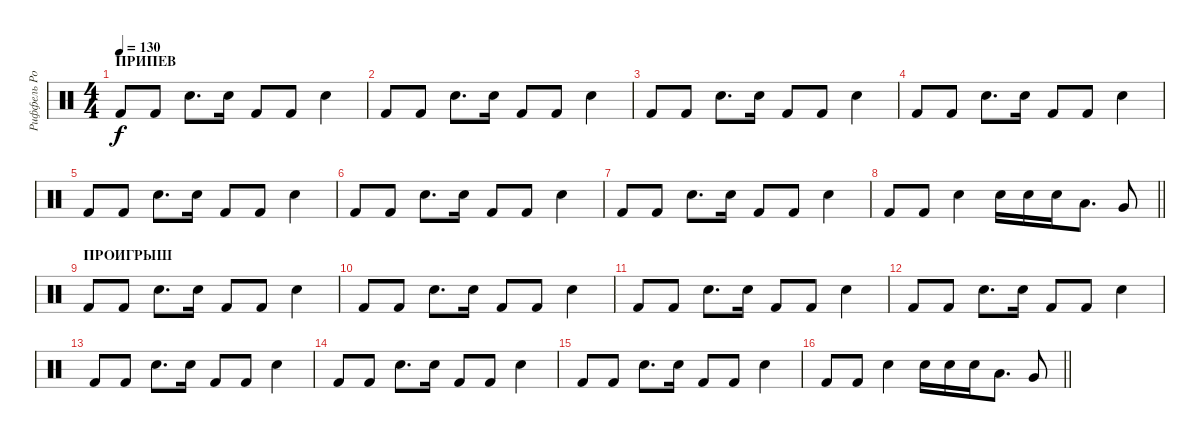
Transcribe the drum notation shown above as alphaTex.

\track ("Риффель Роман(Главные)" "Риффель Ро") {instrument percussion}
\staff {score}
\articulation defaults
\ts (4 4)
\section ("" "ПРИПЕВ")
\tempo 130
\clef neutral
\ks c "Kick (hit) 2".8{dy f} "Kick (hit) 2".8 "Electric Snare (hit)".8{d} "Electric Snare (hit)".16 "Kick (hit) 2".8 "Kick (hit) 2".8 "Electric Snare (hit)".4
|
"Kick (hit) 2".8 "Kick (hit) 2".8 "Electric Snare (hit)".8{d} "Electric Snare (hit)".16 "Kick (hit) 2".8 "Kick (hit) 2".8 "Electric Snare (hit)".4 |
"Kick (hit) 2".8 "Kick (hit) 2".8 "Electric Snare (hit)".8{d} "Electric Snare (hit)".16 "Kick (hit) 2".8 "Kick (hit) 2".8 "Electric Snare (hit)".4 |
"Kick (hit) 2".8 "Kick (hit) 2".8 "Electric Snare (hit)".8{d} "Electric Snare (hit)".16 "Kick (hit) 2".8 "Kick (hit) 2".8 "Electric Snare (hit)".4 |
"Kick (hit) 2".8 "Kick (hit) 2".8 "Electric Snare (hit)".8{d} "Electric Snare (hit)".16 "Kick (hit) 2".8 "Kick (hit) 2".8 "Electric Snare (hit)".4 |
"Kick (hit) 2".8 "Kick (hit) 2".8 "Electric Snare (hit)".8{d} "Electric Snare (hit)".16 "Kick (hit) 2".8 "Kick (hit) 2".8 "Electric Snare (hit)".4 |
"Kick (hit) 2".8 "Kick (hit) 2".8 "Electric Snare (hit)".8{d} "Electric Snare (hit)".16 "Kick (hit) 2".8 "Kick (hit) 2".8 "Electric Snare (hit)".4 |
\barLineRight lightlight "Kick (hit) 2".8 "Kick (hit) 2".8 "Electric Snare (hit)".4 "Electric Snare (hit)".16 "Electric Snare (hit)".16 "Electric Snare (hit)".16 "Low Tom (hit)".8{d} "Very Low Tom (hit)".8
|
\section ("" "ПРОИГРЫШ")
"Kick (hit) 2".8 "Kick (hit) 2".8 "Electric Snare (hit)".8{d} "Electric Snare (hit)".16 "Kick (hit) 2".8 "Kick (hit) 2".8 "Electric Snare (hit)".4 |
"Kick (hit) 2".8 "Kick (hit) 2".8 "Electric Snare (hit)".8{d} "Electric Snare (hit)".16 "Kick (hit) 2".8 "Kick (hit) 2".8 "Electric Snare (hit)".4 |
"Kick (hit) 2".8 "Kick (hit) 2".8 "Electric Snare (hit)".8{d} "Electric Snare (hit)".16 "Kick (hit) 2".8 "Kick (hit) 2".8 "Electric Snare (hit)".4 |
"Kick (hit) 2".8 "Kick (hit) 2".8 "Electric Snare (hit)".8{d} "Electric Snare (hit)".16 "Kick (hit) 2".8 "Kick (hit) 2".8 "Electric Snare (hit)".4 |
"Kick (hit) 2".8 "Kick (hit) 2".8 "Electric Snare (hit)".8{d} "Electric Snare (hit)".16 "Kick (hit) 2".8 "Kick (hit) 2".8 "Electric Snare (hit)".4 |
"Kick (hit) 2".8 "Kick (hit) 2".8 "Electric Snare (hit)".8{d} "Electric Snare (hit)".16 "Kick (hit) 2".8 "Kick (hit) 2".8 "Electric Snare (hit)".4 |
"Kick (hit) 2".8 "Kick (hit) 2".8 "Electric Snare (hit)".8{d} "Electric Snare (hit)".16 "Kick (hit) 2".8 "Kick (hit) 2".8 "Electric Snare (hit)".4 |
\barLineRight lightlight "Kick (hit) 2".8 "Kick (hit) 2".8 "Electric Snare (hit)".4 "Electric Snare (hit)".16 "Electric Snare (hit)".16 "Electric Snare (hit)".16 "Low Tom (hit)".8{d} "Very Low Tom (hit)".8
